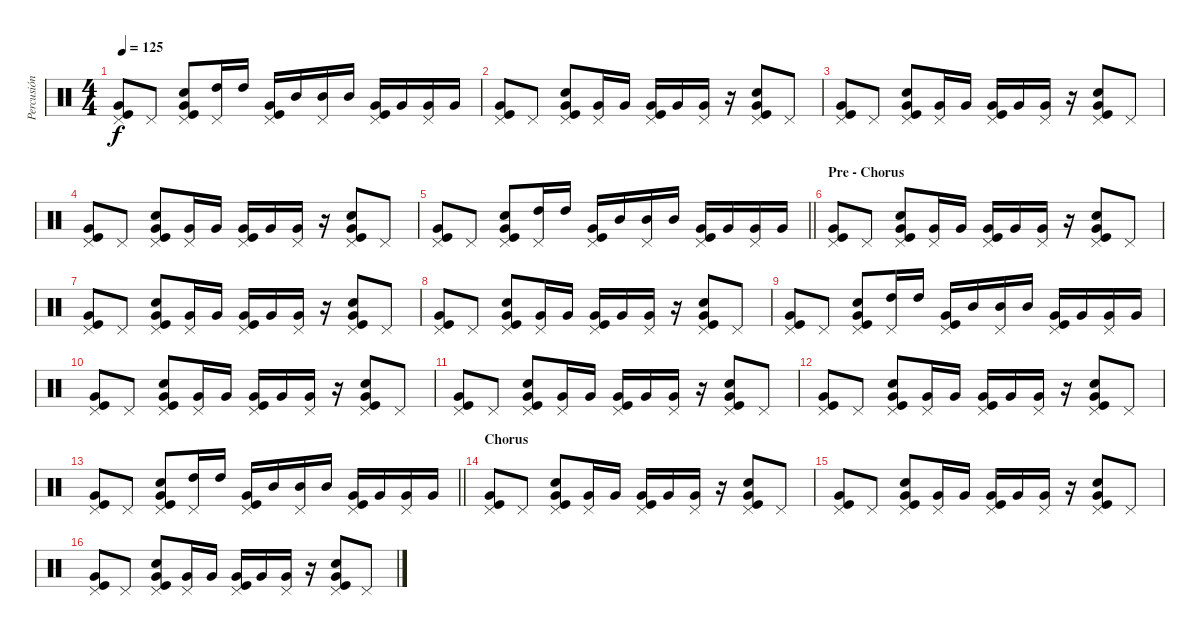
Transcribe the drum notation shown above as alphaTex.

\track ("Percusión" "Percusión") {instrument percussion}
\staff {score}
\articulation defaults
\ts (4 4)
\tempo 125
\clef neutral
\ks c
("Very Low Tom (hit)" "Pedal Hi-Hat (hit)" "Kick (hit)").8{dy f} "Pedal Hi-Hat (hit)".8 ("Very Low Tom (hit)" "Snare (hit) 2" "Pedal Hi-Hat (hit)" "Kick (hit)").8 ("High Tom (hit)" "Pedal Hi-Hat (hit)").16 "High Tom (hit)".16 ("Very Low Tom (hit)" "Pedal Hi-Hat (hit)" "Kick (hit)").16 "Mid Tom (hit)".16 ("Mid Tom (hit)" "Pedal Hi-Hat (hit)").16 "Mid Tom (hit)".16 ("Very Low Tom (hit)" "Pedal Hi-Hat (hit)" "Kick (hit)").16 "Very Low Tom (hit)".16 ("Very Low Tom (hit)" "Pedal Hi-Hat (hit)").16 "Very Low Tom (hit)".16 |
("Very Low Tom (hit)" "Kick (hit)" "Pedal Hi-Hat (hit)").8 "Pedal Hi-Hat (hit)".8 ("Very Low Tom (hit)" "Kick (hit)" "Snare (hit) 2" "Pedal Hi-Hat (hit)").8 ("Very Low Tom (hit)" "Pedal Hi-Hat (hit)").16 "Very Low Tom (hit)".16 ("Very Low Tom (hit)" "Pedal Hi-Hat (hit)" "Kick (hit)").16 "Very Low Tom (hit)".16 ("Very Low Tom (hit)" "Pedal Hi-Hat (hit)").16 r.16 ("Snare (hit) 2" "Very Low Tom (hit)" "Pedal Hi-Hat (hit)" "Kick (hit)").8 "Pedal Hi-Hat (hit)".8 |
("Very Low Tom (hit)" "Kick (hit)" "Pedal Hi-Hat (hit)").8 "Pedal Hi-Hat (hit)".8 ("Very Low Tom (hit)" "Kick (hit)" "Snare (hit) 2" "Pedal Hi-Hat (hit)").8 ("Very Low Tom (hit)" "Pedal Hi-Hat (hit)").16 "Very Low Tom (hit)".16 ("Very Low Tom (hit)" "Pedal Hi-Hat (hit)" "Kick (hit)").16 "Very Low Tom (hit)".16 ("Very Low Tom (hit)" "Pedal Hi-Hat (hit)").16 r.16 ("Snare (hit) 2" "Very Low Tom (hit)" "Pedal Hi-Hat (hit)" "Kick (hit)").8 "Pedal Hi-Hat (hit)".8 |
("Very Low Tom (hit)" "Kick (hit)" "Pedal Hi-Hat (hit)").8 "Pedal Hi-Hat (hit)".8 ("Very Low Tom (hit)" "Kick (hit)" "Snare (hit) 2" "Pedal Hi-Hat (hit)").8 ("Very Low Tom (hit)" "Pedal Hi-Hat (hit)").16 "Very Low Tom (hit)".16 ("Very Low Tom (hit)" "Pedal Hi-Hat (hit)" "Kick (hit)").16 "Very Low Tom (hit)".16 ("Very Low Tom (hit)" "Pedal Hi-Hat (hit)").16 r.16 ("Snare (hit) 2" "Very Low Tom (hit)" "Pedal Hi-Hat (hit)" "Kick (hit)").8 "Pedal Hi-Hat (hit)".8 |
\barLineRight lightlight
("Very Low Tom (hit)" "Pedal Hi-Hat (hit)" "Kick (hit)").8 "Pedal Hi-Hat (hit)".8 ("Very Low Tom (hit)" "Snare (hit) 2" "Pedal Hi-Hat (hit)" "Kick (hit)").8 ("High Tom (hit)" "Pedal Hi-Hat (hit)").16 "High Tom (hit)".16 ("Very Low Tom (hit)" "Pedal Hi-Hat (hit)" "Kick (hit)").16 "Mid Tom (hit)".16 ("Mid Tom (hit)" "Pedal Hi-Hat (hit)").16 "Mid Tom (hit)".16 ("Very Low Tom (hit)" "Pedal Hi-Hat (hit)" "Kick (hit)").16 "Very Low Tom (hit)".16 ("Very Low Tom (hit)" "Pedal Hi-Hat (hit)").16 "Very Low Tom (hit)".16 |
\section ("" "Pre - Chorus")
("Very Low Tom (hit)" "Kick (hit)" "Pedal Hi-Hat (hit)").8 "Pedal Hi-Hat (hit)".8 ("Very Low Tom (hit)" "Kick (hit)" "Snare (hit) 2" "Pedal Hi-Hat (hit)").8 ("Very Low Tom (hit)" "Pedal Hi-Hat (hit)").16 "Very Low Tom (hit)".16 ("Very Low Tom (hit)" "Pedal Hi-Hat (hit)" "Kick (hit)").16 "Very Low Tom (hit)".16 ("Very Low Tom (hit)" "Pedal Hi-Hat (hit)").16 r.16 ("Snare (hit) 2" "Very Low Tom (hit)" "Pedal Hi-Hat (hit)" "Kick (hit)").8 "Pedal Hi-Hat (hit)".8 |
("Very Low Tom (hit)" "Kick (hit)" "Pedal Hi-Hat (hit)").8 "Pedal Hi-Hat (hit)".8 ("Very Low Tom (hit)" "Kick (hit)" "Snare (hit) 2" "Pedal Hi-Hat (hit)").8 ("Very Low Tom (hit)" "Pedal Hi-Hat (hit)").16 "Very Low Tom (hit)".16 ("Very Low Tom (hit)" "Pedal Hi-Hat (hit)" "Kick (hit)").16 "Very Low Tom (hit)".16 ("Very Low Tom (hit)" "Pedal Hi-Hat (hit)").16 r.16 ("Snare (hit) 2" "Very Low Tom (hit)" "Pedal Hi-Hat (hit)" "Kick (hit)").8 "Pedal Hi-Hat (hit)".8 |
("Very Low Tom (hit)" "Kick (hit)" "Pedal Hi-Hat (hit)").8 "Pedal Hi-Hat (hit)".8 ("Very Low Tom (hit)" "Kick (hit)" "Snare (hit) 2" "Pedal Hi-Hat (hit)").8 ("Very Low Tom (hit)" "Pedal Hi-Hat (hit)").16 "Very Low Tom (hit)".16 ("Very Low Tom (hit)" "Pedal Hi-Hat (hit)" "Kick (hit)").16 "Very Low Tom (hit)".16 ("Very Low Tom (hit)" "Pedal Hi-Hat (hit)").16 r.16 ("Snare (hit) 2" "Very Low Tom (hit)" "Pedal Hi-Hat (hit)" "Kick (hit)").8 "Pedal Hi-Hat (hit)".8 |
("Very Low Tom (hit)" "Pedal Hi-Hat (hit)" "Kick (hit)").8 "Pedal Hi-Hat (hit)".8 ("Very Low Tom (hit)" "Snare (hit) 2" "Pedal Hi-Hat (hit)" "Kick (hit)").8 ("High Tom (hit)" "Pedal Hi-Hat (hit)").16 "High Tom (hit)".16 ("Very Low Tom (hit)" "Pedal Hi-Hat (hit)" "Kick (hit)").16 "Mid Tom (hit)".16 ("Mid Tom (hit)" "Pedal Hi-Hat (hit)").16 "Mid Tom (hit)".16 ("Very Low Tom (hit)" "Pedal Hi-Hat (hit)" "Kick (hit)").16 "Very Low Tom (hit)".16 ("Very Low Tom (hit)" "Pedal Hi-Hat (hit)").16 "Very Low Tom (hit)".16 |
("Very Low Tom (hit)" "Kick (hit)" "Pedal Hi-Hat (hit)").8 "Pedal Hi-Hat (hit)".8 ("Very Low Tom (hit)" "Kick (hit)" "Snare (hit) 2" "Pedal Hi-Hat (hit)").8 ("Very Low Tom (hit)" "Pedal Hi-Hat (hit)").16 "Very Low Tom (hit)".16 ("Very Low Tom (hit)" "Pedal Hi-Hat (hit)" "Kick (hit)").16 "Very Low Tom (hit)".16 ("Very Low Tom (hit)" "Pedal Hi-Hat (hit)").16 r.16 ("Snare (hit) 2" "Very Low Tom (hit)" "Pedal Hi-Hat (hit)" "Kick (hit)").8 "Pedal Hi-Hat (hit)".8 |
("Very Low Tom (hit)" "Kick (hit)" "Pedal Hi-Hat (hit)").8 "Pedal Hi-Hat (hit)".8 ("Very Low Tom (hit)" "Kick (hit)" "Snare (hit) 2" "Pedal Hi-Hat (hit)").8 ("Very Low Tom (hit)" "Pedal Hi-Hat (hit)").16 "Very Low Tom (hit)".16 ("Very Low Tom (hit)" "Pedal Hi-Hat (hit)" "Kick (hit)").16 "Very Low Tom (hit)".16 ("Very Low Tom (hit)" "Pedal Hi-Hat (hit)").16 r.16 ("Snare (hit) 2" "Very Low Tom (hit)" "Pedal Hi-Hat (hit)" "Kick (hit)").8 "Pedal Hi-Hat (hit)".8 |
("Very Low Tom (hit)" "Kick (hit)" "Pedal Hi-Hat (hit)").8 "Pedal Hi-Hat (hit)".8 ("Very Low Tom (hit)" "Kick (hit)" "Snare (hit) 2" "Pedal Hi-Hat (hit)").8 ("Very Low Tom (hit)" "Pedal Hi-Hat (hit)").16 "Very Low Tom (hit)".16 ("Very Low Tom (hit)" "Pedal Hi-Hat (hit)" "Kick (hit)").16 "Very Low Tom (hit)".16 ("Very Low Tom (hit)" "Pedal Hi-Hat (hit)").16 r.16 ("Snare (hit) 2" "Very Low Tom (hit)" "Pedal Hi-Hat (hit)" "Kick (hit)").8 "Pedal Hi-Hat (hit)".8 |
\barLineRight lightlight
("Very Low Tom (hit)" "Pedal Hi-Hat (hit)" "Kick (hit)").8 "Pedal Hi-Hat (hit)".8 ("Very Low Tom (hit)" "Snare (hit) 2" "Pedal Hi-Hat (hit)" "Kick (hit)").8 ("High Tom (hit)" "Pedal Hi-Hat (hit)").16 "High Tom (hit)".16 ("Very Low Tom (hit)" "Pedal Hi-Hat (hit)" "Kick (hit)").16 "Mid Tom (hit)".16 ("Mid Tom (hit)" "Pedal Hi-Hat (hit)").16 "Mid Tom (hit)".16 ("Very Low Tom (hit)" "Pedal Hi-Hat (hit)" "Kick (hit)").16 "Very Low Tom (hit)".16 ("Very Low Tom (hit)" "Pedal Hi-Hat (hit)").16 "Very Low Tom (hit)".16 |
\section ("" "Chorus")
("Very Low Tom (hit)" "Kick (hit)" "Pedal Hi-Hat (hit)").8 "Pedal Hi-Hat (hit)".8 ("Very Low Tom (hit)" "Kick (hit)" "Snare (hit) 2" "Pedal Hi-Hat (hit)").8 ("Very Low Tom (hit)" "Pedal Hi-Hat (hit)").16 "Very Low Tom (hit)".16 ("Very Low Tom (hit)" "Pedal Hi-Hat (hit)" "Kick (hit)").16 "Very Low Tom (hit)".16 ("Very Low Tom (hit)" "Pedal Hi-Hat (hit)").16 r.16 ("Snare (hit) 2" "Very Low Tom (hit)" "Pedal Hi-Hat (hit)" "Kick (hit)").8 "Pedal Hi-Hat (hit)".8 |
("Very Low Tom (hit)" "Kick (hit)" "Pedal Hi-Hat (hit)").8 "Pedal Hi-Hat (hit)".8 ("Very Low Tom (hit)" "Kick (hit)" "Snare (hit) 2" "Pedal Hi-Hat (hit)").8 ("Very Low Tom (hit)" "Pedal Hi-Hat (hit)").16 "Very Low Tom (hit)".16 ("Very Low Tom (hit)" "Pedal Hi-Hat (hit)" "Kick (hit)").16 "Very Low Tom (hit)".16 ("Very Low Tom (hit)" "Pedal Hi-Hat (hit)").16 r.16 ("Snare (hit) 2" "Very Low Tom (hit)" "Pedal Hi-Hat (hit)" "Kick (hit)").8 "Pedal Hi-Hat (hit)".8 |
("Very Low Tom (hit)" "Kick (hit)" "Pedal Hi-Hat (hit)").8 "Pedal Hi-Hat (hit)".8 ("Very Low Tom (hit)" "Kick (hit)" "Snare (hit) 2" "Pedal Hi-Hat (hit)").8 ("Very Low Tom (hit)" "Pedal Hi-Hat (hit)").16 "Very Low Tom (hit)".16 ("Very Low Tom (hit)" "Pedal Hi-Hat (hit)" "Kick (hit)").16 "Very Low Tom (hit)".16 ("Very Low Tom (hit)" "Pedal Hi-Hat (hit)").16 r.16 ("Snare (hit) 2" "Very Low Tom (hit)" "Pedal Hi-Hat (hit)" "Kick (hit)").8 "Pedal Hi-Hat (hit)".8
